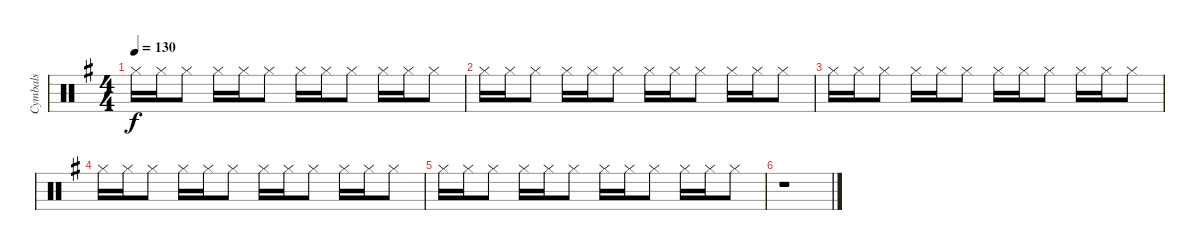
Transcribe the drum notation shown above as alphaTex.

\track ("Cymbals" "Cymbals") {instrument percussion}
\staff {score}
\articulation defaults
\ts (4 4)
\tempo 130
\clef neutral
\ks g "Hi-Hat (closed)".16{dy f} "Hi-Hat (closed)".16 "Hi-Hat (closed)".8 "Hi-Hat (closed)".16 "Hi-Hat (closed)".16 "Hi-Hat (closed)".8 "Hi-Hat (closed)".16 "Hi-Hat (closed)".16 "Hi-Hat (closed)".8 "Hi-Hat (closed)".16 "Hi-Hat (closed)".16 "Hi-Hat (closed)".8
|
"Hi-Hat (closed)".16 "Hi-Hat (closed)".16 "Hi-Hat (closed)".8 "Hi-Hat (closed)".16 "Hi-Hat (closed)".16 "Hi-Hat (closed)".8 "Hi-Hat (closed)".16 "Hi-Hat (closed)".16 "Hi-Hat (closed)".8 "Hi-Hat (closed)".16 "Hi-Hat (closed)".16 "Hi-Hat (closed)".8 |
"Hi-Hat (closed)".16 "Hi-Hat (closed)".16 "Hi-Hat (closed)".8 "Hi-Hat (closed)".16 "Hi-Hat (closed)".16 "Hi-Hat (closed)".8 "Hi-Hat (closed)".16 "Hi-Hat (closed)".16 "Hi-Hat (closed)".8 "Hi-Hat (closed)".16 "Hi-Hat (closed)".16 "Hi-Hat (closed)".8 |
"Hi-Hat (closed)".16 "Hi-Hat (closed)".16 "Hi-Hat (closed)".8 "Hi-Hat (closed)".16 "Hi-Hat (closed)".16 "Hi-Hat (closed)".8 "Hi-Hat (closed)".16 "Hi-Hat (closed)".16 "Hi-Hat (closed)".8 "Hi-Hat (closed)".16 "Hi-Hat (closed)".16 "Hi-Hat (closed)".8 |
"Hi-Hat (closed)".16 "Hi-Hat (closed)".16 "Hi-Hat (closed)".8 "Hi-Hat (closed)".16 "Hi-Hat (closed)".16 "Hi-Hat (closed)".8 "Hi-Hat (closed)".16 "Hi-Hat (closed)".16 "Hi-Hat (closed)".8 "Hi-Hat (closed)".16 "Hi-Hat (closed)".16 "Hi-Hat (closed)".8 |
r.1
